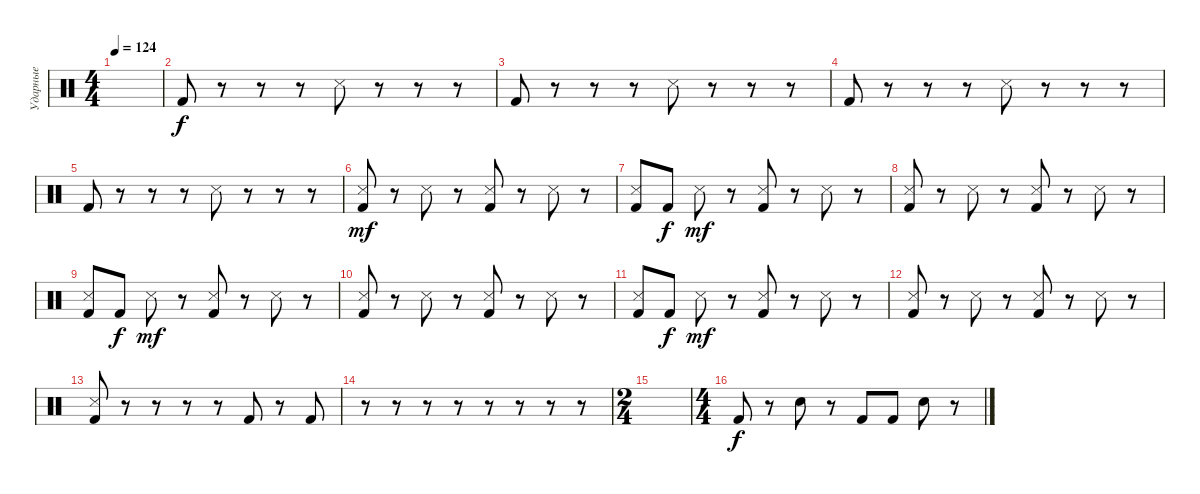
\track ("Ударные" "Ударные") {instrument percussion}
\staff {score}
\articulation defaults
\ts (4 4)
\tempo 124
\clef neutral
\ks c
|
"Kick (hit) 2".8 r.8 r.8 r.8 "Metronome (hit)".8 r.8 r.8 r.8 |
"Kick (hit) 2".8 r.8 r.8 r.8 "Metronome (hit)".8 r.8 r.8 r.8 |
"Kick (hit) 2".8 r.8 r.8 r.8 "Metronome (hit)".8 r.8 r.8 r.8 |
"Kick (hit) 2".8 r.8 r.8 r.8 "Metronome (hit)".8 r.8 r.8 r.8 |
("Metronome (hit)" "Kick (hit) 2").8{dy mf} r.8 "Metronome (hit)".8 r.8 ("Metronome (hit)" "Kick (hit) 2").8 r.8 "Metronome (hit)".8 r.8 |
("Metronome (hit)" "Kick (hit) 2").8 "Kick (hit) 2".8{dy f} "Metronome (hit)".8{dy mf} r.8 ("Metronome (hit)" "Kick (hit) 2").8 r.8 "Metronome (hit)".8 r.8 |
("Metronome (hit)" "Kick (hit) 2").8 r.8 "Metronome (hit)".8 r.8 ("Metronome (hit)" "Kick (hit) 2").8 r.8 "Metronome (hit)".8 r.8 |
("Metronome (hit)" "Kick (hit) 2").8 "Kick (hit) 2".8{dy f} "Metronome (hit)".8{dy mf} r.8 ("Metronome (hit)" "Kick (hit) 2").8 r.8 "Metronome (hit)".8 r.8 |
("Metronome (hit)" "Kick (hit) 2").8 r.8 "Metronome (hit)".8 r.8 ("Metronome (hit)" "Kick (hit) 2").8 r.8 "Metronome (hit)".8 r.8 |
("Metronome (hit)" "Kick (hit) 2").8 "Kick (hit) 2".8{dy f} "Metronome (hit)".8{dy mf} r.8 ("Metronome (hit)" "Kick (hit) 2").8 r.8 "Metronome (hit)".8 r.8 |
("Metronome (hit)" "Kick (hit) 2").8 r.8 "Metronome (hit)".8 r.8 ("Metronome (hit)" "Kick (hit) 2").8 r.8 "Metronome (hit)".8 r.8 |
("Metronome (hit)" "Kick (hit) 2").8 r.8 r.8 r.8 r.8 "Kick (hit) 2".8 r.8 "Kick (hit) 2".8 |
r.8 r.8 r.8 r.8 r.8 r.8 r.8 r.8 |
\ts (2 4)
|
\ts (4 4)
"Kick (hit) 2".8{dy f} r.8 "Snare (hit) 2".8 r.8 "Kick (hit) 2".8 "Kick (hit) 2".8 "Snare (hit) 2".8 r.8
